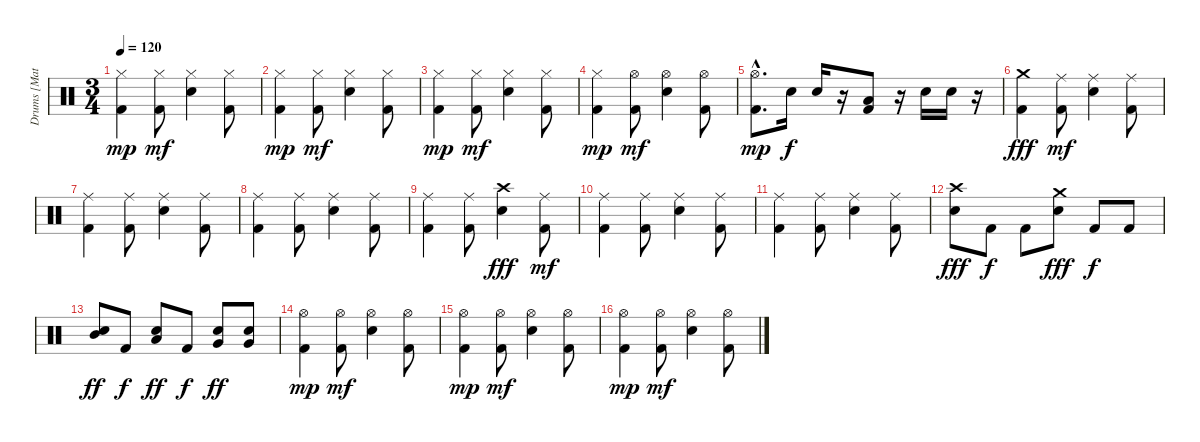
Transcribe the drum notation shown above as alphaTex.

\track ("Drums [Matt]" "Drums [Mat") {instrument percussion}
\staff {score}
\articulation defaults
\ts (3 4)
\tempo 120
\clef neutral
\ks c
("Hi-Hat (closed)" "Kick (hit) 2").4{dy mp} ("Hi-Hat (closed)" "Kick (hit) 2").8{dy mf} ("Hi-Hat (closed)" "Snare (hit) 2").4 ("Hi-Hat (closed)" "Kick (hit) 2").8 |
("Hi-Hat (closed)" "Kick (hit) 2").4{dy mp} ("Hi-Hat (closed)" "Kick (hit) 2").8{dy mf} ("Hi-Hat (closed)" "Snare (hit) 2").4 ("Hi-Hat (closed)" "Kick (hit) 2").8 |
("Hi-Hat (closed)" "Kick (hit) 2").4{dy mp} ("Hi-Hat (closed)" "Kick (hit) 2").8{dy mf} ("Hi-Hat (closed)" "Snare (hit) 2").4 ("Hi-Hat (closed)" "Kick (hit) 2").8 |
("Hi-Hat (closed)" "Kick (hit) 2").4{dy mp} ("Hi-Hat (open)" "Kick (hit) 2").8{dy mf} ("Hi-Hat (open)" "Snare (hit) 2").4 ("Hi-Hat (open)" "Kick (hit) 2").8 |
("Hi-Hat (open)"{hac} "Kick (hit) 2"{hac}).8{d dy mp} "Snare (hit) 2".16{dy f} "Snare (hit) 2".16 r.16 ("Low Tom (hit)" "Kick (hit) 2").8 r.16 "Snare (hit) 2".16 "Snare (hit) 2".16 r.16 |
("Crash medium (hit)" "Kick (hit) 2").4{dy fff} ("Ride (middle)" "Kick (hit) 2").8{dy mf} ("Ride (middle)" "Snare (hit) 2").4 ("Ride (middle)" "Kick (hit) 2").8 |
("Ride (middle)" "Kick (hit) 2").4 ("Ride (middle)" "Kick (hit) 2").8 ("Ride (middle)" "Snare (hit) 2").4 ("Ride (middle)" "Kick (hit) 2").8 |
("Ride (middle)" "Kick (hit) 2").4 ("Ride (middle)" "Kick (hit) 2").8 ("Ride (middle)" "Snare (hit) 2").4 ("Ride (middle)" "Kick (hit) 2").8 |
("Ride (middle)" "Kick (hit) 2").4 ("Ride (middle)" "Kick (hit) 2").8 ("Crash high (hit)" "Snare (hit) 2").4{dy fff} ("Ride (middle)" "Kick (hit) 2").8{dy mf} |
("Ride (middle)" "Kick (hit) 2").4 ("Ride (middle)" "Kick (hit) 2").8 ("Ride (middle)" "Snare (hit) 2").4 ("Ride (middle)" "Kick (hit) 2").8 |
("Ride (middle)" "Kick (hit) 2").4 ("Ride (middle)" "Kick (hit) 2").8 ("Ride (middle)" "Snare (hit) 2").4 ("Ride (middle)" "Kick (hit) 2").8 |
("Crash high (hit)" "Snare (hit) 2").8{dy fff} "Kick (hit) 2".8{dy f} "Kick (hit) 2".8 ("Crash medium (hit)" "Snare (hit) 2").8{dy fff} "Kick (hit) 2".8{dy f} "Kick (hit) 2".8 |
("Snare (hit) 2" "Mid Tom (hit)").8{dy ff} "Kick (hit) 2".8{dy f} ("Snare (hit) 2" "Low Tom (hit)").8{dy ff} "Kick (hit) 2".8{dy f} ("Snare (hit) 2" "Very Low Tom (hit)").8{dy ff} ("Snare (hit) 2" "Very Low Tom (hit)").8 |
("Hi-Hat (open)" "Kick (hit) 2").4{dy mp} ("Hi-Hat (open)" "Kick (hit) 2").8{dy mf} ("Hi-Hat (open)" "Snare (hit) 2").4 ("Hi-Hat (open)" "Kick (hit) 2").8 |
("Hi-Hat (open)" "Kick (hit) 2").4{dy mp} ("Hi-Hat (open)" "Kick (hit) 2").8{dy mf} ("Hi-Hat (open)" "Snare (hit) 2").4 ("Hi-Hat (open)" "Kick (hit) 2").8 |
("Hi-Hat (open)" "Kick (hit) 2").4{dy mp} ("Hi-Hat (open)" "Kick (hit) 2").8{dy mf} ("Hi-Hat (open)" "Snare (hit) 2").4 ("Hi-Hat (open)" "Kick (hit) 2").8
